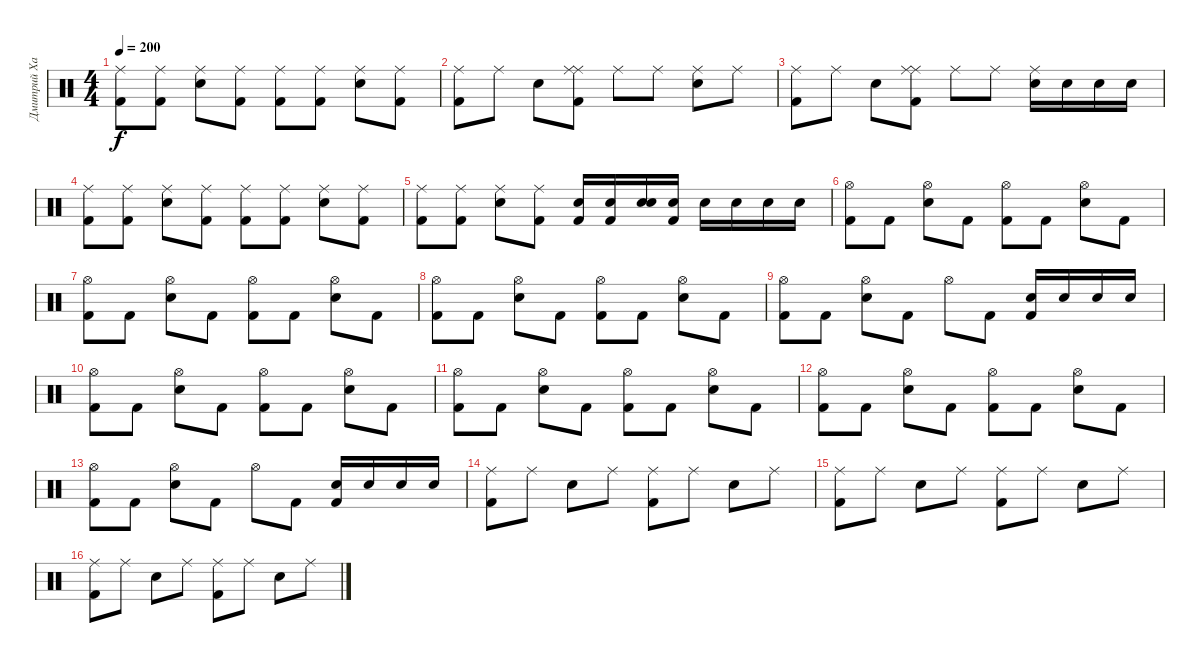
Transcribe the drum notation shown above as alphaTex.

\track ("Дмитрий Хакимов" "Дмитрий Ха") {instrument percussion}
\staff {score}
\articulation defaults
\ts (4 4)
\tempo 200
\clef neutral
\ks c
("Kick (hit) 2" "Ride (middle)").8{dy f} ("Kick (hit) 2" "Ride (middle)").8 ("Electric Snare (hit)" "Ride (middle)").8 ("Kick (hit) 2" "Ride (middle)").8 ("Kick (hit) 2" "Ride (middle)").8 ("Kick (hit) 2" "Ride (middle)").8 ("Electric Snare (hit)" "Ride (middle)").8 ("Kick (hit) 2" "Ride (middle)").8 |
("Kick (hit) 2" "Ride (middle)").8 "Ride (middle)".8 "Electric Snare (hit)".8 ("Ride (middle)" "Ride (middle)" "Kick (hit) 2").8 "Ride (middle)".8 "Ride (middle)".8 ("Ride (middle)" "Electric Snare (hit)").8 "Ride (middle)".8 |
("Kick (hit) 2" "Ride (middle)").8 "Ride (middle)".8 "Electric Snare (hit)".8 ("Ride (middle)" "Ride (middle)" "Kick (hit) 2").8 "Ride (middle)".8 "Ride (middle)".8 ("Ride (middle)" "Electric Snare (hit)").16 "Electric Snare (hit)".16 "Electric Snare (hit)".16 "Electric Snare (hit)".16 |
("Kick (hit) 2" "Ride (middle)").8 ("Kick (hit) 2" "Ride (middle)").8 ("Electric Snare (hit)" "Ride (middle)").8 ("Kick (hit) 2" "Ride (middle)").8 ("Kick (hit) 2" "Ride (middle)").8 ("Kick (hit) 2" "Ride (middle)").8 ("Electric Snare (hit)" "Ride (middle)").8 ("Kick (hit) 2" "Ride (middle)").8 |
("Kick (hit) 2" "Ride (middle)").8 ("Kick (hit) 2" "Ride (middle)").8 ("Electric Snare (hit)" "Ride (middle)").8 ("Kick (hit) 2" "Ride (middle)").8 ("Kick (hit) 2" "Electric Snare (hit)").16 ("Kick (hit) 2" "Electric Snare (hit)").16 ("Electric Snare (hit)" "Electric Snare (hit)").16 ("Kick (hit) 2" "Electric Snare (hit)").16 "Electric Snare (hit)".16 "Electric Snare (hit)".16 "Electric Snare (hit)".16 "Electric Snare (hit)".16 |
("Kick (hit) 2" "Hi-Hat (open)").8 "Kick (hit) 2".8 ("Electric Snare (hit)" "Hi-Hat (open)").8 "Kick (hit) 2".8 ("Kick (hit) 2" "Hi-Hat (open)").8 "Kick (hit) 2".8 ("Electric Snare (hit)" "Hi-Hat (open)").8 "Kick (hit) 2".8 |
("Kick (hit) 2" "Hi-Hat (open)").8 "Kick (hit) 2".8 ("Electric Snare (hit)" "Hi-Hat (open)").8 "Kick (hit) 2".8 ("Kick (hit) 2" "Hi-Hat (open)").8 "Kick (hit) 2".8 ("Electric Snare (hit)" "Hi-Hat (open)").8 "Kick (hit) 2".8 |
("Kick (hit) 2" "Hi-Hat (open)").8 "Kick (hit) 2".8 ("Electric Snare (hit)" "Hi-Hat (open)").8 "Kick (hit) 2".8 ("Kick (hit) 2" "Hi-Hat (open)").8 "Kick (hit) 2".8 ("Electric Snare (hit)" "Hi-Hat (open)").8 "Kick (hit) 2".8 |
("Kick (hit) 2" "Hi-Hat (open)").8 "Kick (hit) 2".8 ("Electric Snare (hit)" "Hi-Hat (open)").8 "Kick (hit) 2".8 "Hi-Hat (open)".8 "Kick (hit) 2".8 ("Electric Snare (hit)" "Kick (hit) 2").16 "Electric Snare (hit)".16 "Electric Snare (hit)".16 "Electric Snare (hit)".16 |
("Kick (hit) 2" "Hi-Hat (open)").8 "Kick (hit) 2".8 ("Electric Snare (hit)" "Hi-Hat (open)").8 "Kick (hit) 2".8 ("Kick (hit) 2" "Hi-Hat (open)").8 "Kick (hit) 2".8 ("Electric Snare (hit)" "Hi-Hat (open)").8 "Kick (hit) 2".8 |
("Kick (hit) 2" "Hi-Hat (open)").8 "Kick (hit) 2".8 ("Electric Snare (hit)" "Hi-Hat (open)").8 "Kick (hit) 2".8 ("Kick (hit) 2" "Hi-Hat (open)").8 "Kick (hit) 2".8 ("Electric Snare (hit)" "Hi-Hat (open)").8 "Kick (hit) 2".8 |
("Kick (hit) 2" "Hi-Hat (open)").8 "Kick (hit) 2".8 ("Electric Snare (hit)" "Hi-Hat (open)").8 "Kick (hit) 2".8 ("Kick (hit) 2" "Hi-Hat (open)").8 "Kick (hit) 2".8 ("Electric Snare (hit)" "Hi-Hat (open)").8 "Kick (hit) 2".8 |
("Kick (hit) 2" "Hi-Hat (open)").8 "Kick (hit) 2".8 ("Electric Snare (hit)" "Hi-Hat (open)").8 "Kick (hit) 2".8 "Hi-Hat (open)".8 "Kick (hit) 2".8 ("Electric Snare (hit)" "Kick (hit) 2").16 "Electric Snare (hit)".16 "Electric Snare (hit)".16 "Electric Snare (hit)".16 |
("Ride (middle)" "Kick (hit) 2").8 "Ride (middle)".8 "Electric Snare (hit)".8 "Ride (middle)".8 ("Ride (middle)" "Kick (hit) 2").8 "Ride (middle)".8 "Electric Snare (hit)".8 "Ride (middle)".8 |
("Ride (middle)" "Kick (hit) 2").8 "Ride (middle)".8 "Electric Snare (hit)".8 "Ride (middle)".8 ("Ride (middle)" "Kick (hit) 2").8 "Ride (middle)".8 "Electric Snare (hit)".8 "Ride (middle)".8 |
("Ride (middle)" "Kick (hit) 2").8 "Ride (middle)".8 "Electric Snare (hit)".8 "Ride (middle)".8 ("Ride (middle)" "Kick (hit) 2").8 "Ride (middle)".8 "Electric Snare (hit)".8 "Ride (middle)".8
